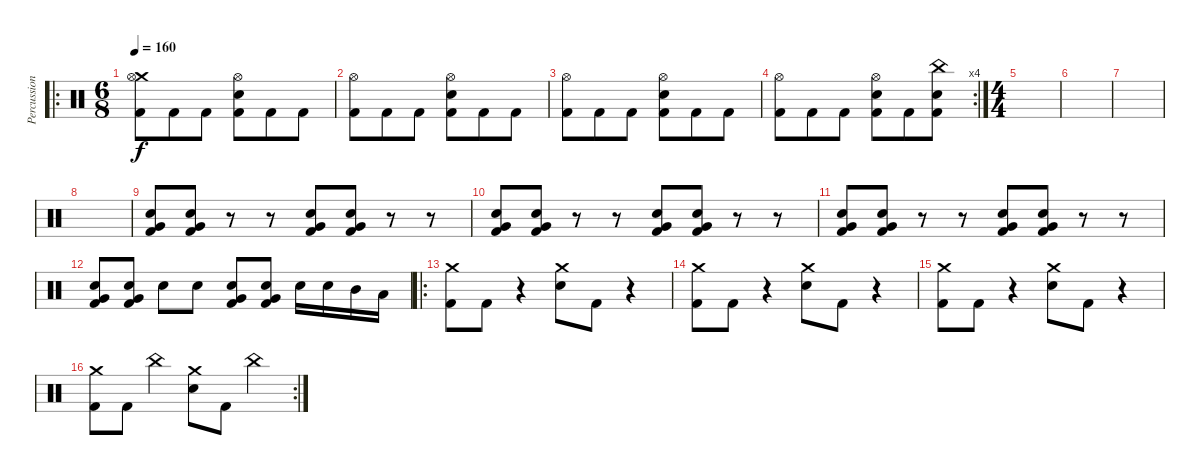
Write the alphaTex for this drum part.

\track ("Percussion" "Percussion") {instrument percussion}
\staff {score}
\articulation defaults
\ro
\ts (6 8)
\tempo 160
\clef neutral
\ks c
("Crash medium (hit)" "Hi-Hat (open)" "Kick (hit) 2").8{dy f} "Kick (hit) 2".8 "Kick (hit) 2".8 ("Hi-Hat (open)" "Electric Snare (hit)" "Kick (hit) 2").8 "Kick (hit) 2".8 "Kick (hit) 2".8 |
("Hi-Hat (open)" "Kick (hit) 2").8 "Kick (hit) 2".8 "Kick (hit) 2".8 ("Hi-Hat (open)" "Electric Snare (hit)" "Kick (hit) 2").8 "Kick (hit) 2".8 "Kick (hit) 2".8 |
("Hi-Hat (open)" "Kick (hit) 2").8 "Kick (hit) 2".8 "Kick (hit) 2".8 ("Hi-Hat (open)" "Electric Snare (hit)" "Kick (hit) 2").8 "Kick (hit) 2".8 "Kick (hit) 2".8 |
\rc 4
("Hi-Hat (open)" "Kick (hit) 2").8 "Kick (hit) 2".8 "Kick (hit) 2".8 ("Hi-Hat (open)" "Electric Snare (hit)" "Kick (hit) 2").8 "Kick (hit) 2".8 ("China (hit)" "Electric Snare (hit)" "Kick (hit) 2").8 |
\ts (4 4)
|
|
|
|
("Electric Snare (hit)" "Very Low Tom (hit)" "Kick (hit) 2").8 ("Electric Snare (hit)" "Very Low Tom (hit)" "Kick (hit) 2").8 r.8 r.8 ("Electric Snare (hit)" "Very Low Tom (hit)" "Kick (hit) 2").8 ("Electric Snare (hit)" "Very Low Tom (hit)" "Kick (hit) 2").8 r.8 r.8 |
("Electric Snare (hit)" "Very Low Tom (hit)" "Kick (hit) 2").8 ("Electric Snare (hit)" "Very Low Tom (hit)" "Kick (hit) 2").8 r.8 r.8 ("Electric Snare (hit)" "Very Low Tom (hit)" "Kick (hit) 2").8 ("Electric Snare (hit)" "Very Low Tom (hit)" "Kick (hit) 2").8 r.8 r.8 |
("Electric Snare (hit)" "Very Low Tom (hit)" "Kick (hit) 2").8 ("Electric Snare (hit)" "Very Low Tom (hit)" "Kick (hit) 2").8 r.8 r.8 ("Electric Snare (hit)" "Very Low Tom (hit)" "Kick (hit) 2").8 ("Electric Snare (hit)" "Very Low Tom (hit)" "Kick (hit) 2").8 r.8 r.8 |
("Electric Snare (hit)" "Very Low Tom (hit)" "Kick (hit) 2").8 ("Electric Snare (hit)" "Very Low Tom (hit)" "Kick (hit) 2").8 "Electric Snare (hit)".8 "Electric Snare (hit)".8 ("Electric Snare (hit)" "Very Low Tom (hit)" "Kick (hit) 2").8 ("Electric Snare (hit)" "Very Low Tom (hit)" "Kick (hit) 2").8 "Electric Snare (hit)".16 "Electric Snare (hit)".16 "Mid Tom (hit)".16 "Low Tom (hit)".16 |
\ro
("Kick (hit) 2" "Crash medium (hit)").8 "Kick (hit) 2".8 r.4 ("Electric Snare (hit)" "Crash medium (hit)").8 "Kick (hit) 2".8 r.4 |
("Kick (hit) 2" "Crash medium (hit)").8 "Kick (hit) 2".8 r.4 ("Electric Snare (hit)" "Crash medium (hit)").8 "Kick (hit) 2".8 r.4 |
("Kick (hit) 2" "Crash medium (hit)").8 "Kick (hit) 2".8 r.4 ("Electric Snare (hit)" "Crash medium (hit)").8 "Kick (hit) 2".8 r.4 |
\rc 2
("Kick (hit) 2" "Crash medium (hit)").8 "Kick (hit) 2".8 "China (hit)".4 ("Electric Snare (hit)" "Crash medium (hit)").8 "Kick (hit) 2".8 "China (hit)".4
